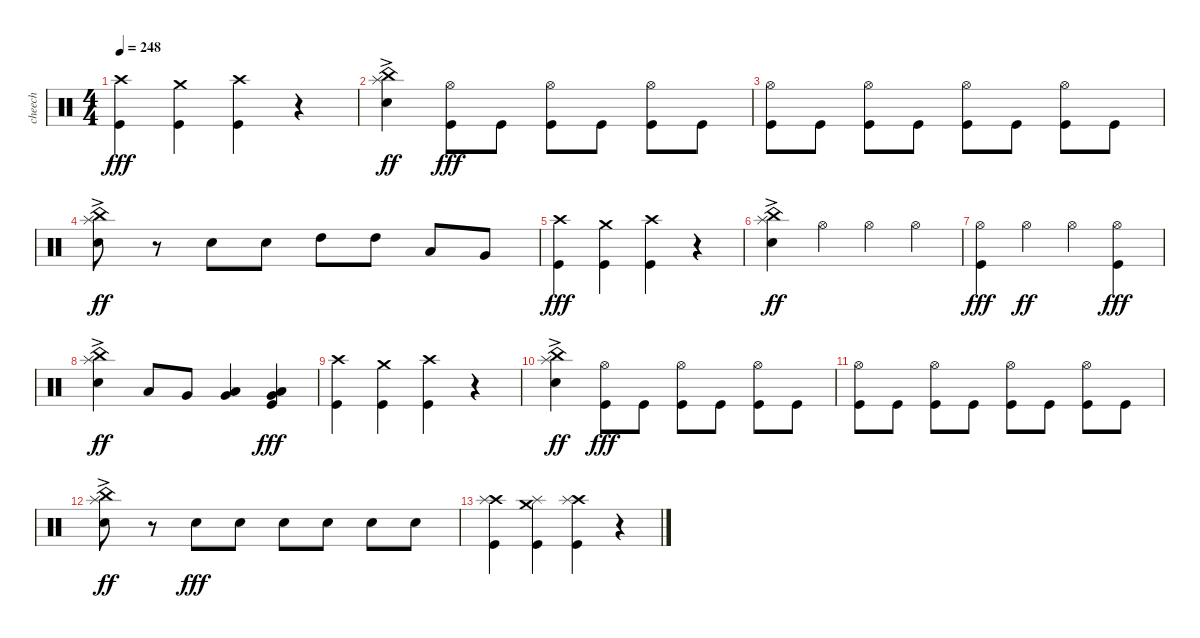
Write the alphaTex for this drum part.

\track ("cheech" "cheech") {instrument percussion}
\staff {score}
\articulation defaults
\ts (4 4)
\tempo 248
\clef neutral
\ks c
("Crash high (hit)" "Kick (hit)").4{dy fff} ("Crash medium (hit)" "Kick (hit)").4 ("Crash high (hit)" "Kick (hit)").4 r.4 |
("China (hit)"{ac} "Splash (hit)"{ac} "Electric Snare (hit)").4{dy ff} ("Hi-Hat (open)" "Kick (hit)").8{dy fff} "Kick (hit)".8 ("Hi-Hat (open)" "Kick (hit)").8 "Kick (hit)".8 ("Hi-Hat (open)" "Kick (hit)").8 "Kick (hit)".8 |
("Hi-Hat (open)" "Kick (hit)").8 "Kick (hit)".8 ("Hi-Hat (open)" "Kick (hit)").8 "Kick (hit)".8 ("Hi-Hat (open)" "Kick (hit)").8 "Kick (hit)".8 ("Hi-Hat (open)" "Kick (hit)").8 "Kick (hit)".8 |
("China (hit)"{ac} "Splash (hit)"{ac} "Electric Snare (hit)").8{dy ff} r.8 "Electric Snare (hit)".8 "Electric Snare (hit)".8 "High Tom (hit)".8 "High Tom (hit)".8 "Low Tom (hit)".8 "Very Low Tom (hit)".8 |
("Crash high (hit)" "Kick (hit)").4{dy fff} ("Crash medium (hit)" "Kick (hit)").4 ("Crash high (hit)" "Kick (hit)").4 r.4 |
("China (hit)"{ac} "Splash (hit)"{ac} "Electric Snare (hit)").4{dy ff} "Hi-Hat (open)".4 "Hi-Hat (open)".4 "Hi-Hat (open)".4 |
("Hi-Hat (open)" "Kick (hit)").4{dy fff} "Hi-Hat (open)".4{dy ff} "Hi-Hat (open)".4 ("Hi-Hat (open)" "Kick (hit)").4{dy fff} |
("China (hit)"{ac} "Splash (hit)"{ac} "Electric Snare (hit)").4{dy ff} "Low Tom (hit)".8 "Very Low Tom (hit)".8 ("Very Low Tom (hit)" "Low Floor Tom (hit)").4 ("Very Low Tom (hit)" "Low Floor Tom (hit)" "Kick (hit)").4{dy fff} |
("Crash high (hit)" "Kick (hit)").4 ("Crash medium (hit)" "Kick (hit)").4 ("Crash high (hit)" "Kick (hit)").4 r.4 |
("China (hit)"{ac} "Splash (hit)"{ac} "Electric Snare (hit)").4{dy ff} ("Hi-Hat (open)" "Kick (hit)").8{dy fff} "Kick (hit)".8 ("Hi-Hat (open)" "Kick (hit)").8 "Kick (hit)".8 ("Hi-Hat (open)" "Kick (hit)").8 "Kick (hit)".8 |
("Hi-Hat (open)" "Kick (hit)").8 "Kick (hit)".8 ("Hi-Hat (open)" "Kick (hit)").8 "Kick (hit)".8 ("Hi-Hat (open)" "Kick (hit)").8 "Kick (hit)".8 ("Hi-Hat (open)" "Kick (hit)").8 "Kick (hit)".8 |
("China (hit)"{ac} "Splash (hit)"{ac} "Electric Snare (hit)").8{dy ff} r.8 "Electric Snare (hit)".8{dy fff} "Electric Snare (hit)".8 "Electric Snare (hit)".8 "Electric Snare (hit)".8 "Electric Snare (hit)".8 "Electric Snare (hit)".8 |
("Crash high (hit)" "Splash (hit)" "Kick (hit)").4 ("Crash medium (hit)" "Splash (hit)" "Kick (hit)").4 ("Crash high (hit)" "Splash (hit)" "Kick (hit)").4 r.4
